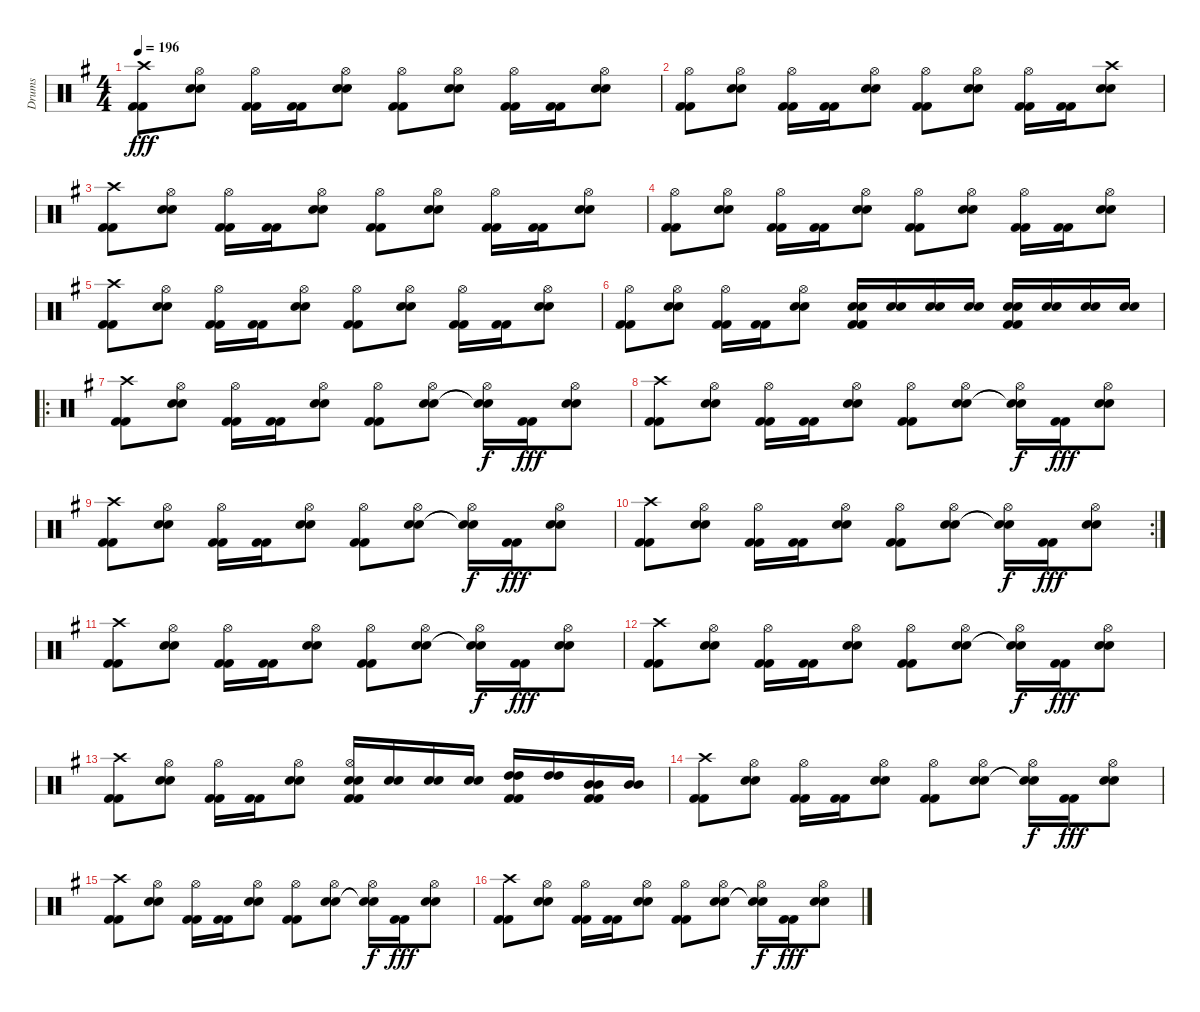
\track ("Drums" "Drums") {instrument percussion}
\staff {score}
\articulation defaults
\ts (4 4)
\tempo 196
\clef neutral
\ks g
("Crash high (hit)" "Kick (hit) 2" "Kick (hit) 2").8{dy fff} ("Hi-Hat (open)" "Snare (hit) 2" "Snare (hit) 2").8 ("Hi-Hat (open)" "Kick (hit) 2" "Kick (hit) 2").16 ("Kick (hit) 2" "Kick (hit) 2").16 ("Hi-Hat (open)" "Snare (hit) 2" "Snare (hit) 2").8 ("Hi-Hat (open)" "Kick (hit) 2" "Kick (hit) 2").8 ("Hi-Hat (open)" "Snare (hit) 2" "Snare (hit) 2").8 ("Hi-Hat (open)" "Kick (hit) 2" "Kick (hit) 2").16 ("Kick (hit) 2" "Kick (hit) 2").16 ("Hi-Hat (open)" "Snare (hit) 2" "Snare (hit) 2").8 |
("Hi-Hat (open)" "Kick (hit) 2" "Kick (hit) 2").8 ("Hi-Hat (open)" "Snare (hit) 2" "Snare (hit) 2").8 ("Hi-Hat (open)" "Kick (hit) 2" "Kick (hit) 2").16 ("Kick (hit) 2" "Kick (hit) 2").16 ("Hi-Hat (open)" "Snare (hit) 2" "Snare (hit) 2").8 ("Hi-Hat (open)" "Kick (hit) 2" "Kick (hit) 2").8 ("Hi-Hat (open)" "Snare (hit) 2" "Snare (hit) 2").8 ("Hi-Hat (open)" "Kick (hit) 2" "Kick (hit) 2").16 ("Kick (hit) 2" "Kick (hit) 2").16 ("Crash high (hit)" "Snare (hit) 2" "Snare (hit) 2").8 |
("Crash high (hit)" "Kick (hit) 2" "Kick (hit) 2").8 ("Hi-Hat (open)" "Snare (hit) 2" "Snare (hit) 2").8 ("Hi-Hat (open)" "Kick (hit) 2" "Kick (hit) 2").16 ("Kick (hit) 2" "Kick (hit) 2").16 ("Hi-Hat (open)" "Snare (hit) 2" "Snare (hit) 2").8 ("Hi-Hat (open)" "Kick (hit) 2" "Kick (hit) 2").8 ("Hi-Hat (open)" "Snare (hit) 2" "Snare (hit) 2").8 ("Hi-Hat (open)" "Kick (hit) 2" "Kick (hit) 2").16 ("Kick (hit) 2" "Kick (hit) 2").16 ("Hi-Hat (open)" "Snare (hit) 2" "Snare (hit) 2").8 |
("Hi-Hat (open)" "Kick (hit) 2" "Kick (hit) 2").8 ("Hi-Hat (open)" "Snare (hit) 2" "Snare (hit) 2").8 ("Hi-Hat (open)" "Kick (hit) 2" "Kick (hit) 2").16 ("Kick (hit) 2" "Kick (hit) 2").16 ("Hi-Hat (open)" "Snare (hit) 2" "Snare (hit) 2").8 ("Hi-Hat (open)" "Kick (hit) 2" "Kick (hit) 2").8 ("Hi-Hat (open)" "Snare (hit) 2" "Snare (hit) 2").8 ("Hi-Hat (open)" "Kick (hit) 2" "Kick (hit) 2").16 ("Kick (hit) 2" "Kick (hit) 2").16 ("Hi-Hat (open)" "Snare (hit) 2" "Snare (hit) 2").8 |
("Crash high (hit)" "Kick (hit) 2" "Kick (hit) 2").8 ("Hi-Hat (open)" "Snare (hit) 2" "Snare (hit) 2").8 ("Hi-Hat (open)" "Kick (hit) 2" "Kick (hit) 2").16 ("Kick (hit) 2" "Kick (hit) 2").16 ("Hi-Hat (open)" "Snare (hit) 2" "Snare (hit) 2").8 ("Hi-Hat (open)" "Kick (hit) 2" "Kick (hit) 2").8 ("Hi-Hat (open)" "Snare (hit) 2" "Snare (hit) 2").8 ("Hi-Hat (open)" "Kick (hit) 2" "Kick (hit) 2").16 ("Kick (hit) 2" "Kick (hit) 2").16 ("Hi-Hat (open)" "Snare (hit) 2" "Snare (hit) 2").8 |
("Hi-Hat (open)" "Kick (hit) 2" "Kick (hit) 2").8 ("Hi-Hat (open)" "Snare (hit) 2" "Snare (hit) 2").8 ("Hi-Hat (open)" "Kick (hit) 2" "Kick (hit) 2").16 ("Kick (hit) 2" "Kick (hit) 2").16 ("Hi-Hat (open)" "Snare (hit) 2" "Snare (hit) 2").8 ("Snare (hit) 2" "Snare (hit) 2" "Kick (hit) 2" "Kick (hit) 2").16 ("Snare (hit) 2" "Snare (hit) 2").16 ("Snare (hit) 2" "Snare (hit) 2").16 ("Snare (hit) 2" "Snare (hit) 2").16 ("Snare (hit) 2" "Snare (hit) 2" "Kick (hit) 2" "Kick (hit) 2").16 ("Snare (hit) 2" "Snare (hit) 2").16 ("Snare (hit) 2" "Snare (hit) 2").16 ("Snare (hit) 2" "Snare (hit) 2").16 |
\ro
("Crash high (hit)" "Kick (hit) 2" "Kick (hit) 2").8 ("Hi-Hat (open)" "Snare (hit) 2" "Snare (hit) 2").8 ("Hi-Hat (open)" "Kick (hit) 2" "Kick (hit) 2").16 ("Kick (hit) 2" "Kick (hit) 2").16 ("Hi-Hat (open)" "Snare (hit) 2" "Snare (hit) 2").8 ("Hi-Hat (open)" "Kick (hit) 2" "Kick (hit) 2").8 ("Hi-Hat (open)" "Snare (hit) 2" "Snare (hit) 2").8 ("Hi-Hat (open)" "Snare (hit) 2"{t} "Snare (hit) 2"{t}).16{dy f} ("Kick (hit) 2" "Kick (hit) 2").16{dy fff} ("Hi-Hat (open)" "Snare (hit) 2" "Snare (hit) 2").8 |
("Crash high (hit)" "Kick (hit) 2" "Kick (hit) 2").8 ("Hi-Hat (open)" "Snare (hit) 2" "Snare (hit) 2").8 ("Hi-Hat (open)" "Kick (hit) 2" "Kick (hit) 2").16 ("Kick (hit) 2" "Kick (hit) 2").16 ("Hi-Hat (open)" "Snare (hit) 2" "Snare (hit) 2").8 ("Hi-Hat (open)" "Kick (hit) 2" "Kick (hit) 2").8 ("Hi-Hat (open)" "Snare (hit) 2" "Snare (hit) 2").8 ("Hi-Hat (open)" "Snare (hit) 2"{t} "Snare (hit) 2"{t}).16{dy f} ("Kick (hit) 2" "Kick (hit) 2").16{dy fff} ("Hi-Hat (open)" "Snare (hit) 2" "Snare (hit) 2").8 |
("Crash high (hit)" "Kick (hit) 2" "Kick (hit) 2").8 ("Hi-Hat (open)" "Snare (hit) 2" "Snare (hit) 2").8 ("Hi-Hat (open)" "Kick (hit) 2" "Kick (hit) 2").16 ("Kick (hit) 2" "Kick (hit) 2").16 ("Hi-Hat (open)" "Snare (hit) 2" "Snare (hit) 2").8 ("Hi-Hat (open)" "Kick (hit) 2" "Kick (hit) 2").8 ("Hi-Hat (open)" "Snare (hit) 2" "Snare (hit) 2").8 ("Hi-Hat (open)" "Snare (hit) 2"{t} "Snare (hit) 2"{t}).16{dy f} ("Kick (hit) 2" "Kick (hit) 2").16{dy fff} ("Hi-Hat (open)" "Snare (hit) 2" "Snare (hit) 2").8 |
\rc 2
("Crash high (hit)" "Kick (hit) 2" "Kick (hit) 2").8 ("Hi-Hat (open)" "Snare (hit) 2" "Snare (hit) 2").8 ("Hi-Hat (open)" "Kick (hit) 2" "Kick (hit) 2").16 ("Kick (hit) 2" "Kick (hit) 2").16 ("Hi-Hat (open)" "Snare (hit) 2" "Snare (hit) 2").8 ("Hi-Hat (open)" "Kick (hit) 2" "Kick (hit) 2").8 ("Hi-Hat (open)" "Snare (hit) 2" "Snare (hit) 2").8 ("Hi-Hat (open)" "Snare (hit) 2"{t} "Snare (hit) 2"{t}).16{dy f} ("Kick (hit) 2" "Kick (hit) 2").16{dy fff} ("Hi-Hat (open)" "Snare (hit) 2" "Snare (hit) 2").8 |
("Crash high (hit)" "Kick (hit) 2" "Kick (hit) 2").8 ("Hi-Hat (open)" "Snare (hit) 2" "Snare (hit) 2").8 ("Hi-Hat (open)" "Kick (hit) 2" "Kick (hit) 2").16 ("Kick (hit) 2" "Kick (hit) 2").16 ("Hi-Hat (open)" "Snare (hit) 2" "Snare (hit) 2").8 ("Hi-Hat (open)" "Kick (hit) 2" "Kick (hit) 2").8 ("Hi-Hat (open)" "Snare (hit) 2" "Snare (hit) 2").8 ("Hi-Hat (open)" "Snare (hit) 2"{t} "Snare (hit) 2"{t}).16{dy f} ("Kick (hit) 2" "Kick (hit) 2").16{dy fff} ("Hi-Hat (open)" "Snare (hit) 2" "Snare (hit) 2").8 |
("Crash high (hit)" "Kick (hit) 2" "Kick (hit) 2").8 ("Hi-Hat (open)" "Snare (hit) 2" "Snare (hit) 2").8 ("Hi-Hat (open)" "Kick (hit) 2" "Kick (hit) 2").16 ("Kick (hit) 2" "Kick (hit) 2").16 ("Hi-Hat (open)" "Snare (hit) 2" "Snare (hit) 2").8 ("Hi-Hat (open)" "Kick (hit) 2" "Kick (hit) 2").8 ("Hi-Hat (open)" "Snare (hit) 2" "Snare (hit) 2").8 ("Hi-Hat (open)" "Snare (hit) 2"{t} "Snare (hit) 2"{t}).16{dy f} ("Kick (hit) 2" "Kick (hit) 2").16{dy fff} ("Hi-Hat (open)" "Snare (hit) 2" "Snare (hit) 2").8 |
("Crash high (hit)" "Kick (hit) 2" "Kick (hit) 2").8 ("Hi-Hat (open)" "Snare (hit) 2" "Snare (hit) 2").8 ("Hi-Hat (open)" "Kick (hit) 2" "Kick (hit) 2").16 ("Kick (hit) 2" "Kick (hit) 2").16 ("Hi-Hat (open)" "Snare (hit) 2" "Snare (hit) 2").8 ("Hi-Hat (open)" "Snare (hit) 2" "Snare (hit) 2" "Kick (hit) 2" "Kick (hit) 2").16 ("Snare (hit) 2" "Snare (hit) 2").16 ("Snare (hit) 2" "Snare (hit) 2").16 ("Snare (hit) 2" "Snare (hit) 2").16 ("High Tom (hit)" "High Tom (hit)" "Kick (hit) 2" "Kick (hit) 2").16 ("High Tom (hit)" "High Tom (hit)").16 ("Mid Tom (hit)" "Mid Tom (hit)" "Kick (hit) 2" "Kick (hit) 2").16 ("Mid Tom (hit)" "Mid Tom (hit)").16 |
("Crash high (hit)" "Kick (hit) 2" "Kick (hit) 2").8 ("Hi-Hat (open)" "Snare (hit) 2" "Snare (hit) 2").8 ("Hi-Hat (open)" "Kick (hit) 2" "Kick (hit) 2").16 ("Kick (hit) 2" "Kick (hit) 2").16 ("Hi-Hat (open)" "Snare (hit) 2" "Snare (hit) 2").8 ("Hi-Hat (open)" "Kick (hit) 2" "Kick (hit) 2").8 ("Hi-Hat (open)" "Snare (hit) 2" "Snare (hit) 2").8 ("Hi-Hat (open)" "Snare (hit) 2"{t} "Snare (hit) 2"{t}).16{dy f} ("Kick (hit) 2" "Kick (hit) 2").16{dy fff} ("Hi-Hat (open)" "Snare (hit) 2" "Snare (hit) 2").8 |
("Crash high (hit)" "Kick (hit) 2" "Kick (hit) 2").8 ("Hi-Hat (open)" "Snare (hit) 2" "Snare (hit) 2").8 ("Hi-Hat (open)" "Kick (hit) 2" "Kick (hit) 2").16 ("Kick (hit) 2" "Kick (hit) 2").16 ("Hi-Hat (open)" "Snare (hit) 2" "Snare (hit) 2").8 ("Hi-Hat (open)" "Kick (hit) 2" "Kick (hit) 2").8 ("Hi-Hat (open)" "Snare (hit) 2" "Snare (hit) 2").8 ("Hi-Hat (open)" "Snare (hit) 2"{t} "Snare (hit) 2"{t}).16{dy f} ("Kick (hit) 2" "Kick (hit) 2").16{dy fff} ("Hi-Hat (open)" "Snare (hit) 2" "Snare (hit) 2").8 |
("Crash high (hit)" "Kick (hit) 2" "Kick (hit) 2").8 ("Hi-Hat (open)" "Snare (hit) 2" "Snare (hit) 2").8 ("Hi-Hat (open)" "Kick (hit) 2" "Kick (hit) 2").16 ("Kick (hit) 2" "Kick (hit) 2").16 ("Hi-Hat (open)" "Snare (hit) 2" "Snare (hit) 2").8 ("Hi-Hat (open)" "Kick (hit) 2" "Kick (hit) 2").8 ("Hi-Hat (open)" "Snare (hit) 2" "Snare (hit) 2").8 ("Hi-Hat (open)" "Snare (hit) 2"{t} "Snare (hit) 2"{t}).16{dy f} ("Kick (hit) 2" "Kick (hit) 2").16{dy fff} ("Hi-Hat (open)" "Snare (hit) 2" "Snare (hit) 2").8
